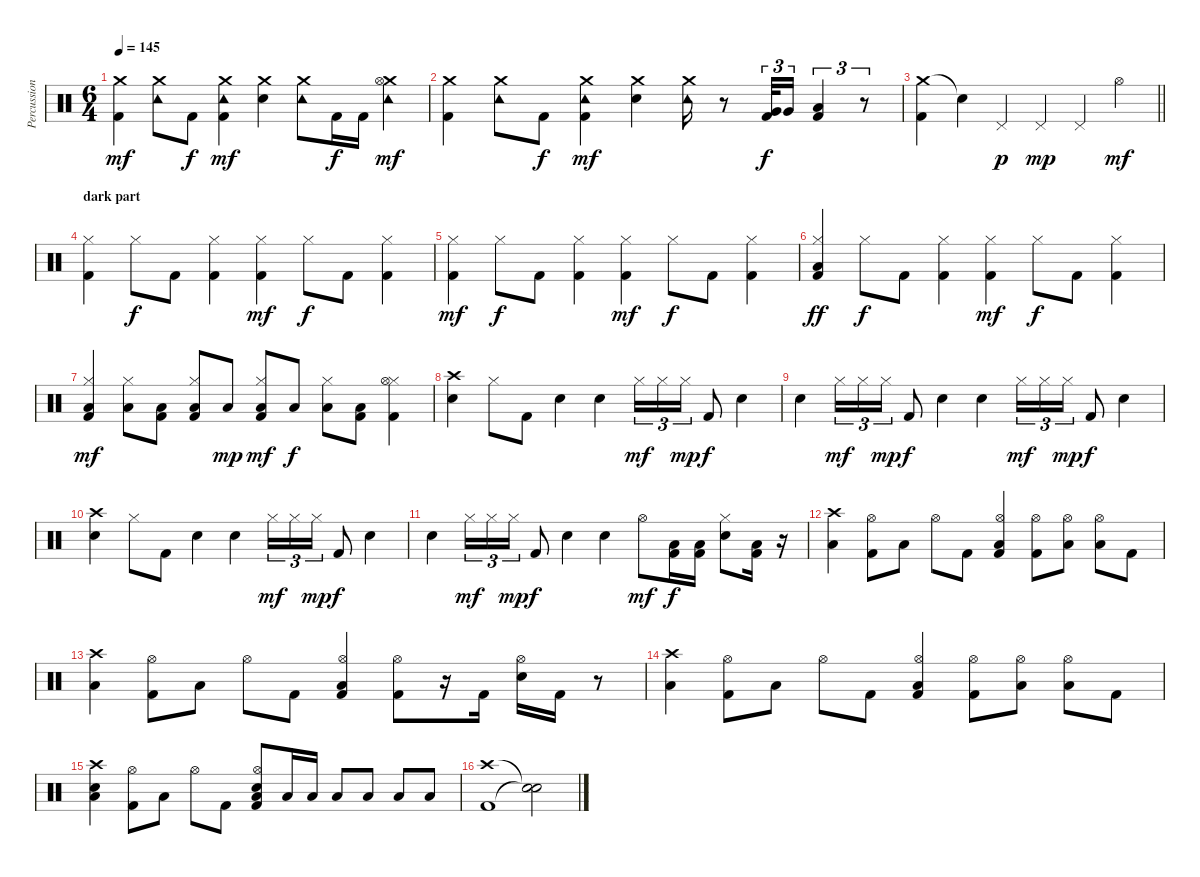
\track ("Percussion" "Percussion") {instrument percussion}
\staff {score}
\articulation defaults
\ts (6 4)
\tempo 145
\clef neutral
\ks c
("Crash medium (hit)" "Kick (hit) 2").4{dy mf} ("Tambourine (hit)" "Crash medium (hit)").8 "Kick (hit) 2".8{dy f} ("Tambourine (hit)" "Crash medium (hit)" "Kick (hit) 2").4{dy mf} ("Crash medium (hit)" "Snare (hit) 2").4 ("Tambourine (hit)" "Crash medium (hit)").8 "Kick (hit) 2".16{dy f} "Kick (hit) 2".16 ("Tambourine (hit)" "Crash medium (hit)" "Hi-Hat (open)").4{dy mf} |
("Crash medium (hit)" "Kick (hit) 2").4 ("Tambourine (hit)" "Crash medium (hit)").8 "Kick (hit) 2".8{dy f} ("Tambourine (hit)" "Crash medium (hit)" "Kick (hit) 2").4{dy mf} ("Crash medium (hit)" "Snare (hit) 2").4 ("Tambourine (hit)" "Crash medium (hit)").16 r.8 ("Very Low Tom (hit)" "Kick (hit) 2").32{tu (3 2) dy f} "Very Low Tom (hit)".16{tu (3 2)} ("Low Floor Tom (hit)" "Kick (hit) 2").4{tu (3 2)} r.8{tu (3 2)} |
\barLineRight lightlight
("Crash medium (hit)" "Kick (hit) 2").4 "Snare (hit)"{t}.4 "Pedal Hi-Hat (hit)".4{dy p} "Pedal Hi-Hat (hit)".4{dy mp} "Pedal Hi-Hat (hit)".4 "Hi-Hat (open)".4{dy mf} |
\section ("" "dark part")
("Hi-Hat (closed)" "Kick (hit) 2").4 "Hi-Hat (closed)".8{dy f} "Kick (hit) 2".8 ("Hi-Hat (closed)" "Kick (hit) 2").4 ("Hi-Hat (closed)" "Kick (hit) 2").4{dy mf} "Hi-Hat (closed)".8{dy f} "Kick (hit) 2".8 ("Hi-Hat (closed)" "Kick (hit) 2").4 |
("Hi-Hat (closed)" "Kick (hit) 2").4{dy mf} "Hi-Hat (closed)".8{dy f} "Kick (hit) 2".8 ("Hi-Hat (closed)" "Kick (hit) 2").4 ("Hi-Hat (closed)" "Kick (hit) 2").4{dy mf} "Hi-Hat (closed)".8{dy f} "Kick (hit) 2".8 ("Hi-Hat (closed)" "Kick (hit) 2").4 |
("Hi-Hat (closed)" "Low Tom (hit)" "Kick (hit) 2").4{dy ff} "Hi-Hat (closed)".8{dy f} "Kick (hit) 2".8 ("Hi-Hat (closed)" "Kick (hit) 2").4 ("Hi-Hat (closed)" "Kick (hit) 2").4{dy mf} "Hi-Hat (closed)".8{dy f} "Kick (hit) 2".8 ("Hi-Hat (closed)" "Kick (hit) 2").4 |
("Hi-Hat (closed)" "Low Tom (hit)" "Kick (hit) 2").4{dy mf} ("Hi-Hat (closed)" "Low Tom (hit)").8 ("Low Tom (hit)" "Kick (hit) 2").8 ("Hi-Hat (closed)" "Low Tom (hit)" "Kick (hit) 2").8 "Low Tom (hit)".8{dy mp} ("Hi-Hat (closed)" "Low Tom (hit)" "Kick (hit) 2").8{dy mf} "Low Tom (hit)".8{dy f} ("Hi-Hat (closed)" "Low Tom (hit)").8 ("Low Tom (hit)" "Kick (hit) 2").8 ("Hi-Hat (closed)" "Hi-Hat (open)" "Kick (hit) 2").4 |
("Crash high (hit)" "Snare (hit) 2").4 "Hi-Hat (closed)".8 "Kick (hit) 2".8 "Snare (hit) 2".4 "Snare (hit) 2".4 "Hi-Hat (closed)".16{tu (3 2) dy mf} "Hi-Hat (closed)".16{tu (3 2)} "Hi-Hat (closed)".16{tu (3 2) dy mp} "Kick (hit) 2".8{dy f} "Snare (hit) 2".4 |
"Snare (hit) 2".4 "Hi-Hat (closed)".16{tu (3 2) dy mf} "Hi-Hat (closed)".16{tu (3 2)} "Hi-Hat (closed)".16{tu (3 2) dy mp} "Kick (hit) 2".8{dy f} "Snare (hit) 2".4 "Snare (hit) 2".4 "Hi-Hat (closed)".16{tu (3 2) dy mf} "Hi-Hat (closed)".16{tu (3 2)} "Hi-Hat (closed)".16{tu (3 2) dy mp} "Kick (hit) 2".8{dy f} "Snare (hit) 2".4 |
("Crash high (hit)" "Snare (hit) 2").4 "Hi-Hat (closed)".8 "Kick (hit) 2".8 "Snare (hit) 2".4 "Snare (hit) 2".4 "Hi-Hat (closed)".16{tu (3 2) dy mf} "Hi-Hat (closed)".16{tu (3 2)} "Hi-Hat (closed)".16{tu (3 2) dy mp} "Kick (hit) 2".8{dy f} "Snare (hit) 2".4 |
"Snare (hit) 2".4 "Hi-Hat (closed)".16{tu (3 2) dy mf} "Hi-Hat (closed)".16{tu (3 2)} "Hi-Hat (closed)".16{tu (3 2) dy mp} "Kick (hit) 2".8{dy f} "Snare (hit) 2".4 "Snare (hit) 2".4 "Hi-Hat (open)".8{dy mf} ("Low Tom (hit)" "Kick (hit) 2").16{dy f} ("Low Tom (hit)" "Kick (hit) 2").16 ("Hi-Hat (closed)" "Snare (hit) 2").8 ("Low Floor Tom (hit)" "Kick (hit) 2").16 r.16 |
("Crash high (hit)" "Low Tom (hit)").4 ("Hi-Hat (open)" "Kick (hit) 2").8 "Low Tom (hit)".8 "Hi-Hat (open)".8 "Kick (hit) 2".8 ("Hi-Hat (open)" "Low Tom (hit)" "Kick (hit) 2").4 ("Hi-Hat (open)" "Kick (hit) 2").8 ("Hi-Hat (open)" "Low Tom (hit)").8 ("Hi-Hat (open)" "Low Tom (hit)").8 "Kick (hit) 2".8 |
("Crash high (hit)" "Low Tom (hit)").4 ("Hi-Hat (open)" "Kick (hit) 2").8 "Low Tom (hit)".8 "Hi-Hat (open)".8 "Kick (hit) 2".8 ("Hi-Hat (open)" "Low Tom (hit)" "Kick (hit) 2").4 ("Hi-Hat (open)" "Kick (hit) 2").8 r.16 "Kick (hit) 2".16 ("Hi-Hat (open)" "Snare (hit) 2").16 "Kick (hit) 2".16 r.8 |
("Crash high (hit)" "Low Tom (hit)").4 ("Hi-Hat (open)" "Kick (hit) 2").8 "Low Tom (hit)".8 "Hi-Hat (open)".8 "Kick (hit) 2".8 ("Hi-Hat (open)" "Low Tom (hit)" "Kick (hit) 2").4 ("Hi-Hat (open)" "Kick (hit) 2").8 ("Hi-Hat (open)" "Low Tom (hit)").8 ("Hi-Hat (open)" "Low Tom (hit)").8 "Kick (hit) 2".8 |
("Crash high (hit)" "Low Tom (hit)" "Snare (hit) 2").4 ("Hi-Hat (open)" "Kick (hit) 2").8 "Low Tom (hit)".8 "Hi-Hat (open)".8 "Kick (hit) 2".8 ("Hi-Hat (open)" "Low Tom (hit)" "Snare (hit) 2" "Kick (hit) 2").8 "Low Tom (hit)".16 "Low Tom (hit)".16 "Low Tom (hit)".8 "Low Tom (hit)".8 "Low Floor Tom (hit)".8 "Low Floor Tom (hit)".8 |
("Crash high (hit)" "Kick (hit) 2").1 ("Snare (hit)"{t} "Snare (hit)"{t}).2
